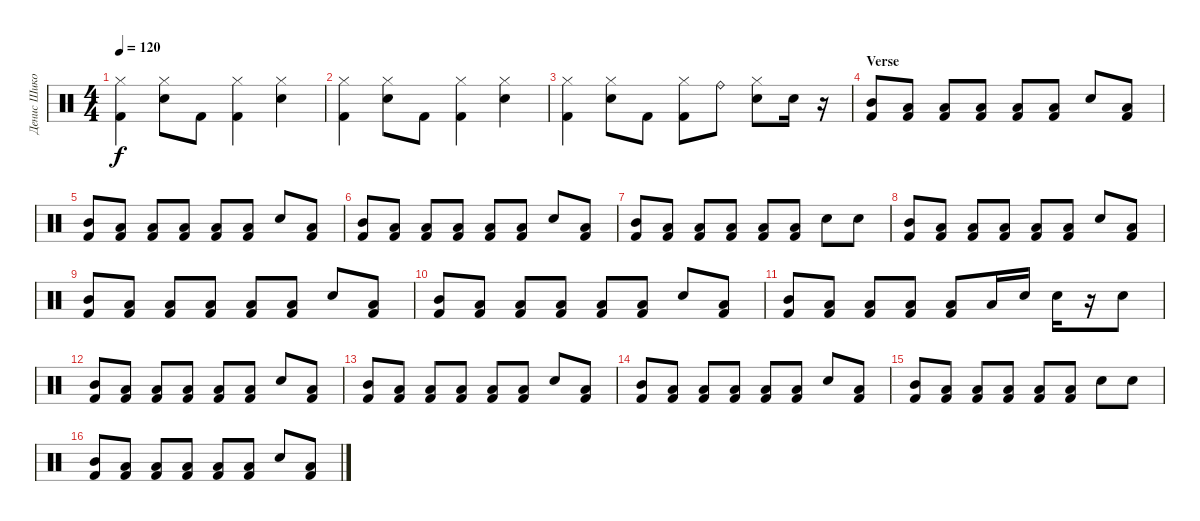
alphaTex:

\track ("Денис Шиков" "Денис Шико") {instrument percussion}
\staff {score}
\articulation defaults
\ts (4 4)
\tempo 120
\clef neutral
\ks c
("Hi-Hat (closed)" "Kick (hit) 2").4{dy f} ("Hi-Hat (closed)" "Electric Snare (hit)").8 "Kick (hit) 2".8 ("Hi-Hat (closed)" "Kick (hit) 2").4 ("Hi-Hat (closed)" "Electric Snare (hit)").4 |
("Hi-Hat (closed)" "Kick (hit) 2").4 ("Hi-Hat (closed)" "Electric Snare (hit)").8 "Kick (hit) 2".8 ("Hi-Hat (closed)" "Kick (hit) 2").4 ("Hi-Hat (closed)" "Electric Snare (hit)").4 |
("Hi-Hat (closed)" "Kick (hit) 2").4 ("Hi-Hat (closed)" "Electric Snare (hit)").8 "Kick (hit) 2".8 ("Hi-Hat (closed)" "Kick (hit) 2").8 "Ride (bell)".8 ("Hi-Hat (closed)" "Electric Snare (hit)").8 "Electric Snare (hit)".16 r.16 |
\section ("" "Verse")
("Mid Tom (hit)" "Kick (hit) 2").8 ("Low Floor Tom (hit)" "Kick (hit) 2").8 ("Low Floor Tom (hit)" "Kick (hit) 2").8 ("Low Tom (hit)" "Kick (hit) 2").8 ("Low Floor Tom (hit)" "Kick (hit) 2").8 ("Low Floor Tom (hit)" "Kick (hit) 2").8 "Electric Snare (hit)".8 ("Low Floor Tom (hit)" "Kick (hit) 2").8 |
("Mid Tom (hit)" "Kick (hit) 2").8 ("Low Floor Tom (hit)" "Kick (hit) 2").8 ("Low Floor Tom (hit)" "Kick (hit) 2").8 ("Low Tom (hit)" "Kick (hit) 2").8 ("Low Floor Tom (hit)" "Kick (hit) 2").8 ("Low Floor Tom (hit)" "Kick (hit) 2").8 "Electric Snare (hit)".8 ("Low Floor Tom (hit)" "Kick (hit) 2").8 |
("Mid Tom (hit)" "Kick (hit) 2").8 ("Low Floor Tom (hit)" "Kick (hit) 2").8 ("Low Floor Tom (hit)" "Kick (hit) 2").8 ("Low Tom (hit)" "Kick (hit) 2").8 ("Low Floor Tom (hit)" "Kick (hit) 2").8 ("Low Floor Tom (hit)" "Kick (hit) 2").8 "Electric Snare (hit)".8 ("Low Floor Tom (hit)" "Kick (hit) 2").8 |
("Mid Tom (hit)" "Kick (hit) 2").8 ("Low Floor Tom (hit)" "Kick (hit) 2").8 ("Low Floor Tom (hit)" "Kick (hit) 2").8 ("Low Tom (hit)" "Kick (hit) 2").8 ("Low Floor Tom (hit)" "Kick (hit) 2").8 ("Low Floor Tom (hit)" "Kick (hit) 2").8 "Electric Snare (hit)".8 "Electric Snare (hit)".8 |
("Mid Tom (hit)" "Kick (hit) 2").8 ("Low Floor Tom (hit)" "Kick (hit) 2").8 ("Low Floor Tom (hit)" "Kick (hit) 2").8 ("Low Tom (hit)" "Kick (hit) 2").8 ("Low Floor Tom (hit)" "Kick (hit) 2").8 ("Low Floor Tom (hit)" "Kick (hit) 2").8 "Electric Snare (hit)".8 ("Low Floor Tom (hit)" "Kick (hit) 2").8 |
("Mid Tom (hit)" "Kick (hit) 2").8 ("Low Floor Tom (hit)" "Kick (hit) 2").8 ("Low Floor Tom (hit)" "Kick (hit) 2").8 ("Low Tom (hit)" "Kick (hit) 2").8 ("Low Floor Tom (hit)" "Kick (hit) 2").8 ("Low Floor Tom (hit)" "Kick (hit) 2").8 "Electric Snare (hit)".8 ("Low Floor Tom (hit)" "Kick (hit) 2").8 |
("Mid Tom (hit)" "Kick (hit) 2").8 ("Low Floor Tom (hit)" "Kick (hit) 2").8 ("Low Floor Tom (hit)" "Kick (hit) 2").8 ("Low Tom (hit)" "Kick (hit) 2").8 ("Low Floor Tom (hit)" "Kick (hit) 2").8 ("Low Floor Tom (hit)" "Kick (hit) 2").8 "Electric Snare (hit)".8 ("Low Floor Tom (hit)" "Kick (hit) 2").8 |
("Mid Tom (hit)" "Kick (hit) 2").8 ("Low Floor Tom (hit)" "Kick (hit) 2").8 ("Low Floor Tom (hit)" "Kick (hit) 2").8 ("Low Tom (hit)" "Kick (hit) 2").8 ("Low Floor Tom (hit)" "Kick (hit) 2").8 "Low Floor Tom (hit)".16 "Electric Snare (hit)".16 "Electric Snare (hit)".16 r.16 "Electric Snare (hit)".8 |
("Mid Tom (hit)" "Kick (hit) 2").8 ("Low Floor Tom (hit)" "Kick (hit) 2").8 ("Low Floor Tom (hit)" "Kick (hit) 2").8 ("Low Tom (hit)" "Kick (hit) 2").8 ("Low Floor Tom (hit)" "Kick (hit) 2").8 ("Low Floor Tom (hit)" "Kick (hit) 2").8 "Electric Snare (hit)".8 ("Low Floor Tom (hit)" "Kick (hit) 2").8 |
("Mid Tom (hit)" "Kick (hit) 2").8 ("Low Floor Tom (hit)" "Kick (hit) 2").8 ("Low Floor Tom (hit)" "Kick (hit) 2").8 ("Low Tom (hit)" "Kick (hit) 2").8 ("Low Floor Tom (hit)" "Kick (hit) 2").8 ("Low Floor Tom (hit)" "Kick (hit) 2").8 "Electric Snare (hit)".8 ("Low Floor Tom (hit)" "Kick (hit) 2").8 |
("Mid Tom (hit)" "Kick (hit) 2").8 ("Low Floor Tom (hit)" "Kick (hit) 2").8 ("Low Floor Tom (hit)" "Kick (hit) 2").8 ("Low Tom (hit)" "Kick (hit) 2").8 ("Low Floor Tom (hit)" "Kick (hit) 2").8 ("Low Floor Tom (hit)" "Kick (hit) 2").8 "Electric Snare (hit)".8 ("Low Floor Tom (hit)" "Kick (hit) 2").8 |
("Mid Tom (hit)" "Kick (hit) 2").8 ("Low Floor Tom (hit)" "Kick (hit) 2").8 ("Low Floor Tom (hit)" "Kick (hit) 2").8 ("Low Tom (hit)" "Kick (hit) 2").8 ("Low Floor Tom (hit)" "Kick (hit) 2").8 ("Low Floor Tom (hit)" "Kick (hit) 2").8 "Electric Snare (hit)".8 "Electric Snare (hit)".8 |
("Mid Tom (hit)" "Kick (hit) 2").8 ("Low Floor Tom (hit)" "Kick (hit) 2").8 ("Low Floor Tom (hit)" "Kick (hit) 2").8 ("Low Tom (hit)" "Kick (hit) 2").8 ("Low Floor Tom (hit)" "Kick (hit) 2").8 ("Low Floor Tom (hit)" "Kick (hit) 2").8 "Electric Snare (hit)".8 ("Low Floor Tom (hit)" "Kick (hit) 2").8
